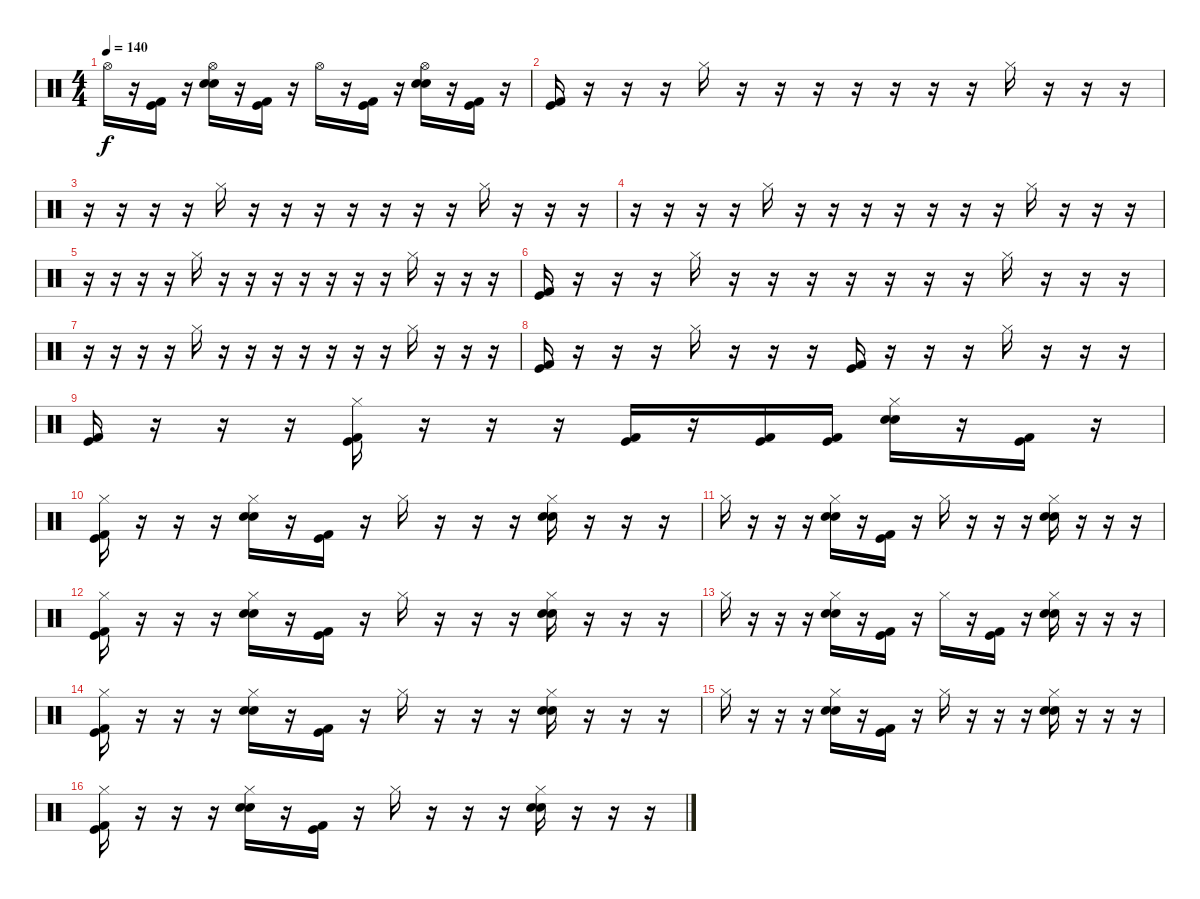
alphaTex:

\track "" {instrument percussion}
\staff {score}
\articulation defaults
\ts (4 4)
\tempo 140
\clef neutral
\ks c "Hi-Hat (open)".16{dy f}
r.16 ("Kick (hit)" "Kick (hit) 2").16 r.16 ("Hi-Hat (open)" "Electric Snare (hit)" "Electric Snare (hit)").16 r.16 ("Kick (hit)" "Kick (hit) 2").16 r.16 "Hi-Hat (open)".16 r.16 ("Kick (hit)" "Kick (hit) 2").16 r.16 ("Hi-Hat (open)" "Electric Snare (hit)" "Electric Snare (hit)").16 r.16 ("Kick (hit)" "Kick (hit) 2").16 r.16 |
("Kick (hit)" "Kick (hit) 2").16 r.16 r.16 r.16 "Hi-Hat (closed)".16 r.16 r.16 r.16 r.16 r.16 r.16 r.16 "Hi-Hat (closed)".16 r.16 r.16 r.16 |
r.16 r.16 r.16 r.16 "Hi-Hat (closed)".16 r.16 r.16 r.16 r.16 r.16 r.16 r.16 "Hi-Hat (closed)".16 r.16 r.16 r.16 |
r.16 r.16 r.16 r.16 "Hi-Hat (closed)".16 r.16 r.16 r.16 r.16 r.16 r.16 r.16 "Hi-Hat (closed)".16 r.16 r.16 r.16 |
r.16 r.16 r.16 r.16 "Hi-Hat (closed)".16 r.16 r.16 r.16 r.16 r.16 r.16 r.16 "Hi-Hat (closed)".16 r.16 r.16 r.16 |
("Kick (hit)" "Kick (hit) 2").16 r.16 r.16 r.16 "Hi-Hat (closed)".16 r.16 r.16 r.16 r.16 r.16 r.16 r.16 "Hi-Hat (closed)".16 r.16 r.16 r.16 |
r.16 r.16 r.16 r.16 "Hi-Hat (closed)".16 r.16 r.16 r.16 r.16 r.16 r.16 r.16 "Hi-Hat (closed)".16 r.16 r.16 r.16 |
("Kick (hit)" "Kick (hit) 2").16 r.16 r.16 r.16 "Hi-Hat (closed)".16 r.16 r.16 r.16 ("Kick (hit)" "Kick (hit) 2").16 r.16 r.16 r.16 "Hi-Hat (closed)".16 r.16 r.16 r.16 |
("Kick (hit)" "Kick (hit) 2").16 r.16 r.16 r.16 ("Hi-Hat (closed)" "Kick (hit)" "Kick (hit) 2").16 r.16 r.16 r.16 ("Kick (hit)" "Kick (hit) 2").16 r.16 ("Kick (hit)" "Kick (hit) 2").16 ("Kick (hit)" "Kick (hit) 2").16 ("Hi-Hat (closed)" "Electric Snare (hit)" "Electric Snare (hit)").16 r.16 ("Kick (hit)" "Kick (hit) 2").16 r.16 |
("Hi-Hat (closed)" "Kick (hit)" "Kick (hit) 2").16 r.16 r.16 r.16 ("Hi-Hat (closed)" "Electric Snare (hit)" "Electric Snare (hit)").16 r.16 ("Kick (hit)" "Kick (hit) 2").16 r.16 "Hi-Hat (closed)".16 r.16 r.16 r.16 ("Hi-Hat (closed)" "Electric Snare (hit)" "Electric Snare (hit)").16 r.16 r.16 r.16 |
"Hi-Hat (closed)".16 r.16 r.16 r.16 ("Hi-Hat (closed)" "Electric Snare (hit)" "Electric Snare (hit)").16 r.16 ("Kick (hit)" "Kick (hit) 2").16 r.16 "Hi-Hat (closed)".16 r.16 r.16 r.16 ("Hi-Hat (closed)" "Electric Snare (hit)" "Electric Snare (hit)").16 r.16 r.16 r.16 |
("Hi-Hat (closed)" "Kick (hit)" "Kick (hit) 2").16 r.16 r.16 r.16 ("Hi-Hat (closed)" "Electric Snare (hit)" "Electric Snare (hit)").16 r.16 ("Kick (hit)" "Kick (hit) 2").16 r.16 "Hi-Hat (closed)".16 r.16 r.16 r.16 ("Hi-Hat (closed)" "Electric Snare (hit)" "Electric Snare (hit)").16 r.16 r.16 r.16 |
"Hi-Hat (closed)".16 r.16 r.16 r.16 ("Hi-Hat (closed)" "Electric Snare (hit)" "Electric Snare (hit)").16 r.16 ("Kick (hit)" "Kick (hit) 2").16 r.16 "Hi-Hat (closed)".16 r.16 ("Kick (hit)" "Kick (hit) 2").16 r.16 ("Hi-Hat (closed)" "Electric Snare (hit)" "Electric Snare (hit)").16 r.16 r.16 r.16 |
("Hi-Hat (closed)" "Kick (hit)" "Kick (hit) 2").16 r.16 r.16 r.16 ("Hi-Hat (closed)" "Electric Snare (hit)" "Electric Snare (hit)").16 r.16 ("Kick (hit)" "Kick (hit) 2").16 r.16 "Hi-Hat (closed)".16 r.16 r.16 r.16 ("Hi-Hat (closed)" "Electric Snare (hit)" "Electric Snare (hit)").16 r.16 r.16 r.16 |
"Hi-Hat (closed)".16 r.16 r.16 r.16 ("Hi-Hat (closed)" "Electric Snare (hit)" "Electric Snare (hit)").16 r.16 ("Kick (hit)" "Kick (hit) 2").16 r.16 "Hi-Hat (closed)".16 r.16 r.16 r.16 ("Hi-Hat (closed)" "Electric Snare (hit)" "Electric Snare (hit)").16 r.16 r.16 r.16 |
("Hi-Hat (closed)" "Kick (hit)" "Kick (hit) 2").16 r.16 r.16 r.16 ("Hi-Hat (closed)" "Electric Snare (hit)" "Electric Snare (hit)").16 r.16 ("Kick (hit)" "Kick (hit) 2").16 r.16 "Hi-Hat (closed)".16 r.16 r.16 r.16 ("Hi-Hat (closed)" "Electric Snare (hit)" "Electric Snare (hit)").16 r.16 r.16 r.16
